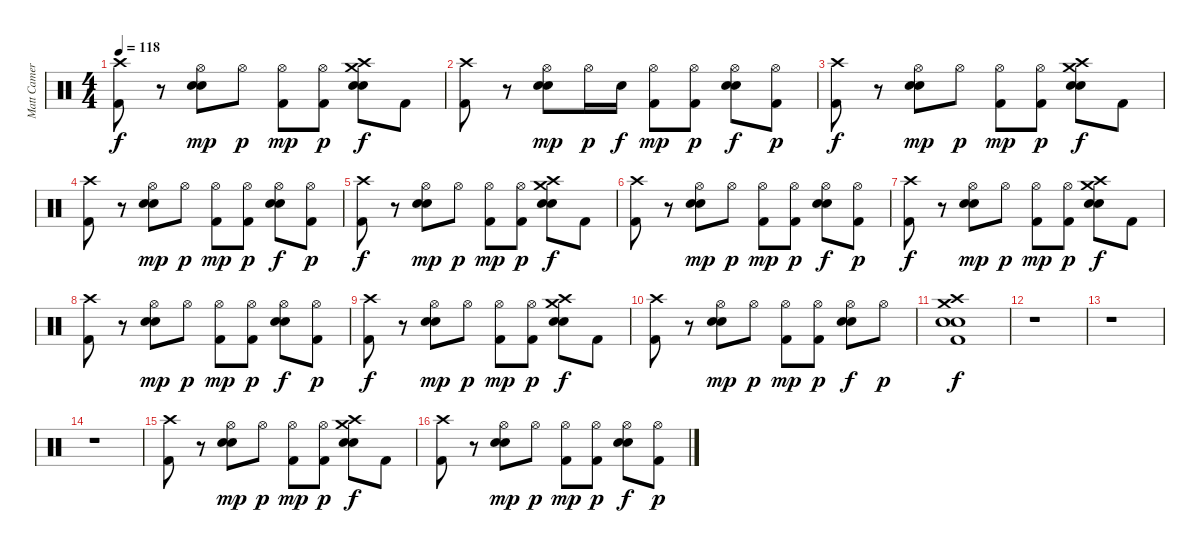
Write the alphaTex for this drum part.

\track ("Matt Cameron" "Matt Camer") {instrument percussion}
\staff
\articulation defaults
\ts (4 4)
\tempo 118
\clef neutral
\ks c
("Crash high (hit)" "Kick (hit) 2").8{dy f} r.8 ("Hi-Hat (open)" "Electric Snare (hit)" "Snare (hit) 2").8{dy mp} "Hi-Hat (open)".8{dy p} ("Hi-Hat (open)" "Kick (hit) 2").8{dy mp} ("Hi-Hat (open)" "Kick (hit) 2").8{dy p} ("Crash medium (hit)" "Crash high (hit)" "Electric Snare (hit)" "Snare (hit) 2").8{dy f} "Kick (hit) 2".8 |
("Crash high (hit)" "Kick (hit) 2").8 r.8 ("Hi-Hat (open)" "Electric Snare (hit)" "Snare (hit) 2").8{dy mp} "Hi-Hat (open)".16{dy p} "Electric Snare (hit)".16{dy f} ("Hi-Hat (open)" "Kick (hit) 2").8{dy mp} ("Hi-Hat (open)" "Kick (hit) 2").8{dy p} ("Hi-Hat (open)" "Electric Snare (hit)" "Snare (hit) 2").8{dy f} ("Hi-Hat (open)" "Kick (hit) 2").8{dy p} |
("Crash high (hit)" "Kick (hit) 2").8{dy f} r.8 ("Hi-Hat (open)" "Electric Snare (hit)" "Snare (hit) 2").8{dy mp} "Hi-Hat (open)".8{dy p} ("Hi-Hat (open)" "Kick (hit) 2").8{dy mp} ("Hi-Hat (open)" "Kick (hit) 2").8{dy p} ("Crash medium (hit)" "Crash high (hit)" "Electric Snare (hit)" "Snare (hit) 2").8{dy f} "Kick (hit) 2".8 |
("Crash high (hit)" "Kick (hit) 2").8 r.8 ("Hi-Hat (open)" "Electric Snare (hit)" "Snare (hit) 2").8{dy mp} "Hi-Hat (open)".8{dy p} ("Hi-Hat (open)" "Kick (hit) 2").8{dy mp} ("Hi-Hat (open)" "Kick (hit) 2").8{dy p} ("Hi-Hat (open)" "Electric Snare (hit)" "Snare (hit) 2").8{dy f} ("Hi-Hat (open)" "Kick (hit) 2").8{dy p} |
("Crash high (hit)" "Kick (hit) 2").8{dy f} r.8 ("Hi-Hat (open)" "Electric Snare (hit)" "Snare (hit) 2").8{dy mp} "Hi-Hat (open)".8{dy p} ("Hi-Hat (open)" "Kick (hit) 2").8{dy mp} ("Hi-Hat (open)" "Kick (hit) 2").8{dy p} ("Crash medium (hit)" "Crash high (hit)" "Electric Snare (hit)" "Snare (hit) 2").8{dy f} "Kick (hit) 2".8 |
("Crash high (hit)" "Kick (hit) 2").8 r.8 ("Hi-Hat (open)" "Electric Snare (hit)" "Snare (hit) 2").8{dy mp} "Hi-Hat (open)".8{dy p} ("Hi-Hat (open)" "Kick (hit) 2").8{dy mp} ("Hi-Hat (open)" "Kick (hit) 2").8{dy p} ("Hi-Hat (open)" "Electric Snare (hit)" "Snare (hit) 2").8{dy f} ("Hi-Hat (open)" "Kick (hit) 2").8{dy p} |
("Crash high (hit)" "Kick (hit) 2").8{dy f} r.8 ("Hi-Hat (open)" "Electric Snare (hit)" "Snare (hit) 2").8{dy mp} "Hi-Hat (open)".8{dy p} ("Hi-Hat (open)" "Kick (hit) 2").8{dy mp} ("Hi-Hat (open)" "Kick (hit) 2").8{dy p} ("Crash medium (hit)" "Crash high (hit)" "Electric Snare (hit)" "Snare (hit) 2").8{dy f} "Kick (hit) 2".8 |
("Crash high (hit)" "Kick (hit) 2").8 r.8 ("Hi-Hat (open)" "Electric Snare (hit)" "Snare (hit) 2").8{dy mp} "Hi-Hat (open)".8{dy p} ("Hi-Hat (open)" "Kick (hit) 2").8{dy mp} ("Hi-Hat (open)" "Kick (hit) 2").8{dy p} ("Hi-Hat (open)" "Electric Snare (hit)" "Snare (hit) 2").8{dy f} ("Hi-Hat (open)" "Kick (hit) 2").8{dy p} |
("Crash high (hit)" "Kick (hit) 2").8{dy f} r.8 ("Hi-Hat (open)" "Electric Snare (hit)" "Snare (hit) 2").8{dy mp} "Hi-Hat (open)".8{dy p} ("Hi-Hat (open)" "Kick (hit) 2").8{dy mp} ("Hi-Hat (open)" "Kick (hit) 2").8{dy p} ("Crash medium (hit)" "Crash high (hit)" "Electric Snare (hit)" "Snare (hit) 2").8{dy f} "Kick (hit) 2".8 |
("Crash high (hit)" "Kick (hit) 2").8 r.8 ("Hi-Hat (open)" "Electric Snare (hit)" "Snare (hit) 2").8{dy mp} "Hi-Hat (open)".8{dy p} ("Hi-Hat (open)" "Kick (hit) 2").8{dy mp} ("Hi-Hat (open)" "Kick (hit) 2").8{dy p} ("Hi-Hat (open)" "Electric Snare (hit)" "Snare (hit) 2").8{dy f} "Hi-Hat (open)".8{dy p} |
("Crash high (hit)" "Crash medium (hit)" "Electric Snare (hit)" "Snare (hit) 2" "Kick (hit) 2").1{dy f} |
r.1 |
r.1 |
r.1 |
("Crash high (hit)" "Kick (hit) 2").8 r.8 ("Hi-Hat (open)" "Electric Snare (hit)" "Snare (hit) 2").8{dy mp} "Hi-Hat (open)".8{dy p} ("Hi-Hat (open)" "Kick (hit) 2").8{dy mp} ("Hi-Hat (open)" "Kick (hit) 2").8{dy p} ("Crash medium (hit)" "Crash high (hit)" "Electric Snare (hit)" "Snare (hit) 2").8{dy f} "Kick (hit) 2".8 |
("Crash high (hit)" "Kick (hit) 2").8 r.8 ("Hi-Hat (open)" "Electric Snare (hit)" "Snare (hit) 2").8{dy mp} "Hi-Hat (open)".8{dy p} ("Hi-Hat (open)" "Kick (hit) 2").8{dy mp} ("Hi-Hat (open)" "Kick (hit) 2").8{dy p} ("Hi-Hat (open)" "Electric Snare (hit)" "Snare (hit) 2").8{dy f} ("Hi-Hat (open)" "Kick (hit) 2").8{dy p}
